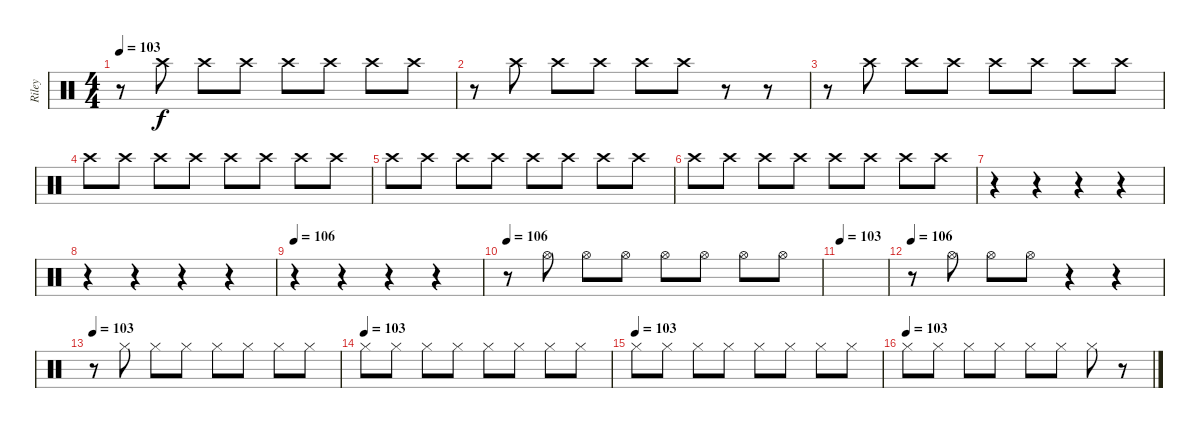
\track ("Riley" "Riley") {instrument percussion}
\staff {score}
\articulation defaults
\ts (4 4)
\tempo 103
\clef neutral
\ks c
r.8{dy f} "Crash high (hit)".8 "Crash high (hit)".8 "Crash high (hit)".8 "Crash high (hit)".8 "Crash high (hit)".8 "Crash high (hit)".8 "Crash high (hit)".8 |
r.8 "Crash high (hit)".8 "Crash high (hit)".8 "Crash high (hit)".8 "Crash high (hit)".8 "Crash high (hit)".8 r.8 r.8 |
r.8 "Crash high (hit)".8 "Crash high (hit)".8 "Crash high (hit)".8 "Crash high (hit)".8 "Crash high (hit)".8 "Crash high (hit)".8 "Crash high (hit)".8 |
"Crash high (hit)".8 "Crash high (hit)".8 "Crash high (hit)".8 "Crash high (hit)".8 "Crash high (hit)".8 "Crash high (hit)".8 "Crash high (hit)".8 "Crash high (hit)".8 |
"Crash high (hit)".8 "Crash high (hit)".8 "Crash high (hit)".8 "Crash high (hit)".8 "Crash high (hit)".8 "Crash high (hit)".8 "Crash high (hit)".8 "Crash high (hit)".8 |
"Crash high (hit)".8 "Crash high (hit)".8 "Crash high (hit)".8 "Crash high (hit)".8 "Crash high (hit)".8 "Crash high (hit)".8 "Crash high (hit)".8 "Crash high (hit)".8 |
r.4 r.4 r.4 r.4 |
r.4 r.4 r.4 r.4 |
\tempo 106
r.4 r.4 r.4 r.4 |
\tempo 106
r.8 "Hi-Hat (open)".8 "Hi-Hat (open)".8 "Hi-Hat (open)".8 "Hi-Hat (open)".8 "Hi-Hat (open)".8 "Hi-Hat (open)".8 "Hi-Hat (open)".8 |
\tempo 103
|
\tempo 106
r.8 "Hi-Hat (open)".8 "Hi-Hat (open)".8 "Hi-Hat (open)".8 r.4 r.4 |
\tempo 103
r.8 "Hi-Hat (closed)".8 "Hi-Hat (closed)".8 "Hi-Hat (closed)".8 "Hi-Hat (closed)".8 "Hi-Hat (closed)".8 "Hi-Hat (closed)".8 "Hi-Hat (closed)".8 |
\tempo (103)
"Hi-Hat (closed)".8 "Hi-Hat (closed)".8 "Hi-Hat (closed)".8 "Hi-Hat (closed)".8 "Hi-Hat (closed)".8 "Hi-Hat (closed)".8 "Hi-Hat (closed)".8 "Hi-Hat (closed)".8 |
\tempo (103)
"Hi-Hat (closed)".8 "Hi-Hat (closed)".8 "Hi-Hat (closed)".8 "Hi-Hat (closed)".8 "Hi-Hat (closed)".8 "Hi-Hat (closed)".8 "Hi-Hat (closed)".8 "Hi-Hat (closed)".8 |
\tempo (103)
"Hi-Hat (closed)".8 "Hi-Hat (closed)".8 "Hi-Hat (closed)".8 "Hi-Hat (closed)".8 "Hi-Hat (closed)".8 "Hi-Hat (closed)".8 "Hi-Hat (closed)".8 r.8
